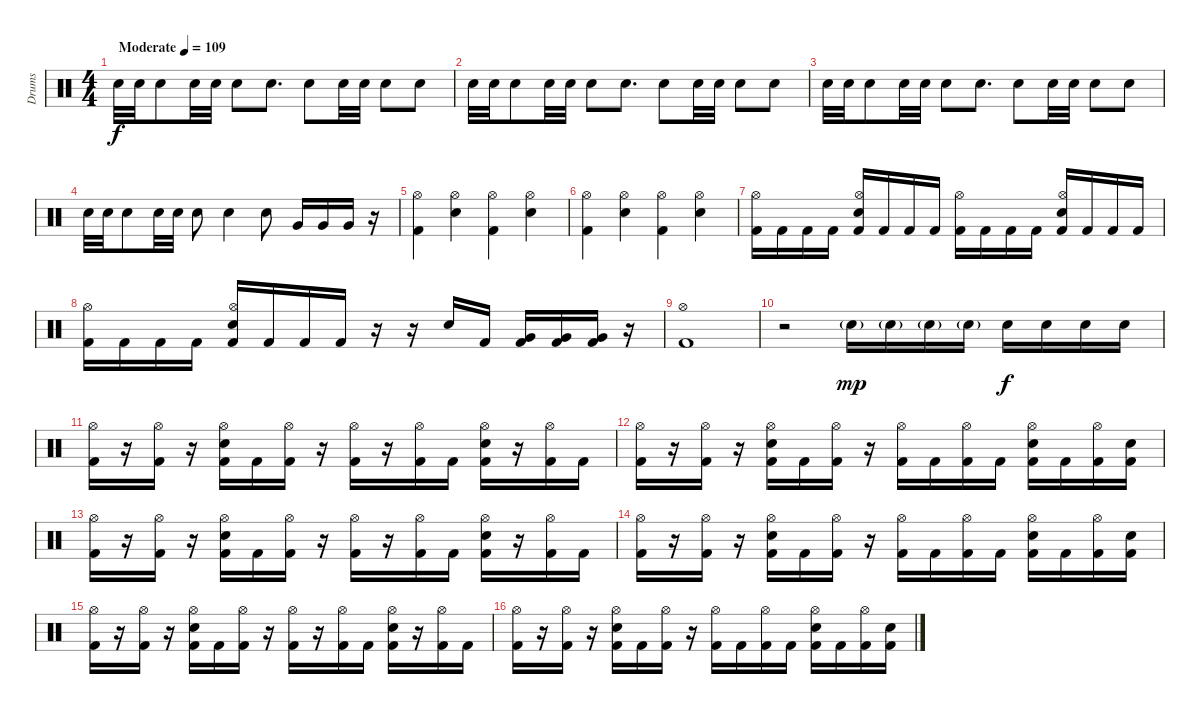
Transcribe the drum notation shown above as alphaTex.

\track ("Drums" "Drums") {instrument percussion}
\staff {score}
\articulation defaults
\ts (4 4)
\tempo (109 "Moderate")
\clef neutral
\ks c "Electric Snare (hit)".32{dy f} "Electric Snare (hit)".32 "Electric Snare (hit)".8 "Electric Snare (hit)".32 "Electric Snare (hit)".32 "Electric Snare (hit)".8 "Electric Snare (hit)".8{d} "Electric Snare (hit)".8 "Electric Snare (hit)".32 "Electric Snare (hit)".32 "Electric Snare (hit)".8 "Electric Snare (hit)".8
|
"Electric Snare (hit)".32 "Electric Snare (hit)".32 "Electric Snare (hit)".8 "Electric Snare (hit)".32 "Electric Snare (hit)".32 "Electric Snare (hit)".8 "Electric Snare (hit)".8{d} "Electric Snare (hit)".8 "Electric Snare (hit)".32 "Electric Snare (hit)".32 "Electric Snare (hit)".8 "Electric Snare (hit)".8 |
"Electric Snare (hit)".32 "Electric Snare (hit)".32 "Electric Snare (hit)".8 "Electric Snare (hit)".32 "Electric Snare (hit)".32 "Electric Snare (hit)".8 "Electric Snare (hit)".8{d} "Electric Snare (hit)".8 "Electric Snare (hit)".32 "Electric Snare (hit)".32 "Electric Snare (hit)".8 "Electric Snare (hit)".8 |
"Electric Snare (hit)".32 "Electric Snare (hit)".32 "Electric Snare (hit)".8 "Electric Snare (hit)".32 "Electric Snare (hit)".32 "Electric Snare (hit)".8 "Electric Snare (hit)".4 "Electric Snare (hit)".8 "Very Low Tom (hit)".16 "Very Low Tom (hit)".16 "Very Low Tom (hit)".16 r.16 |
("Hi-Hat (open)" "Kick (hit) 2").4 ("Hi-Hat (open)" "Electric Snare (hit)").4 ("Hi-Hat (open)" "Kick (hit) 2").4 ("Hi-Hat (open)" "Electric Snare (hit)").4 |
("Hi-Hat (open)" "Kick (hit) 2").4 ("Hi-Hat (open)" "Electric Snare (hit)").4 ("Hi-Hat (open)" "Kick (hit) 2").4 ("Hi-Hat (open)" "Electric Snare (hit)").4 |
("Hi-Hat (open)" "Kick (hit) 2").16 "Kick (hit) 2".16 "Kick (hit) 2".16 "Kick (hit) 2".16 ("Hi-Hat (open)" "Electric Snare (hit)" "Kick (hit) 2").16 "Kick (hit) 2".16 "Kick (hit) 2".16 "Kick (hit) 2".16 ("Hi-Hat (open)" "Kick (hit) 2").16 "Kick (hit) 2".16 "Kick (hit) 2".16 "Kick (hit) 2".16 ("Hi-Hat (open)" "Electric Snare (hit)" "Kick (hit) 2").16 "Kick (hit) 2".16 "Kick (hit) 2".16 "Kick (hit) 2".16 |
("Hi-Hat (open)" "Kick (hit) 2").16 "Kick (hit) 2".16 "Kick (hit) 2".16 "Kick (hit) 2".16 ("Hi-Hat (open)" "Electric Snare (hit)" "Kick (hit) 2").16 "Kick (hit) 2".16 "Kick (hit) 2".16 "Kick (hit) 2".16 r.16 r.16 "Electric Snare (hit)".16 "Kick (hit) 2".16 ("Very Low Tom (hit)" "Kick (hit) 2").16 ("Very Low Tom (hit)" "Kick (hit) 2").16 ("Very Low Tom (hit)" "Kick (hit) 2").16 r.16 |
("Hi-Hat (open)" "Kick (hit) 2").1 |
r.2 "Electric Snare (hit)"{g}.16{dy mp} "Electric Snare (hit)"{g}.16 "Electric Snare (hit)"{g}.16 "Electric Snare (hit)"{g}.16 "Electric Snare (hit)".16{dy f} "Electric Snare (hit)".16 "Electric Snare (hit)".16 "Electric Snare (hit)".16 |
("Hi-Hat (open)" "Kick (hit) 2").16 r.16 ("Hi-Hat (open)" "Kick (hit) 2").16 r.16 ("Hi-Hat (open)" "Electric Snare (hit)" "Kick (hit) 2").16 "Kick (hit) 2".16 ("Hi-Hat (open)" "Kick (hit) 2").16 r.16 ("Hi-Hat (open)" "Kick (hit) 2").16 r.16 ("Hi-Hat (open)" "Kick (hit) 2").16 "Kick (hit) 2".16 ("Hi-Hat (open)" "Electric Snare (hit)" "Kick (hit) 2").16 r.16 ("Hi-Hat (open)" "Kick (hit) 2").16 "Kick (hit) 2".16 |
("Hi-Hat (open)" "Kick (hit) 2").16 r.16 ("Hi-Hat (open)" "Kick (hit) 2").16 r.16 ("Hi-Hat (open)" "Electric Snare (hit)" "Kick (hit) 2").16 "Kick (hit) 2".16 ("Hi-Hat (open)" "Kick (hit) 2").16 r.16 ("Hi-Hat (open)" "Kick (hit) 2").16 "Kick (hit) 2".16 ("Hi-Hat (open)" "Kick (hit) 2").16 "Kick (hit) 2".16 ("Hi-Hat (open)" "Electric Snare (hit)" "Kick (hit) 2").16 "Kick (hit) 2".16 ("Hi-Hat (open)" "Kick (hit) 2").16 ("Electric Snare (hit)" "Kick (hit) 2").16 |
("Hi-Hat (open)" "Kick (hit) 2").16 r.16 ("Hi-Hat (open)" "Kick (hit) 2").16 r.16 ("Hi-Hat (open)" "Electric Snare (hit)" "Kick (hit) 2").16 "Kick (hit) 2".16 ("Hi-Hat (open)" "Kick (hit) 2").16 r.16 ("Hi-Hat (open)" "Kick (hit) 2").16 r.16 ("Hi-Hat (open)" "Kick (hit) 2").16 "Kick (hit) 2".16 ("Hi-Hat (open)" "Electric Snare (hit)" "Kick (hit) 2").16 r.16 ("Hi-Hat (open)" "Kick (hit) 2").16 "Kick (hit) 2".16 |
("Hi-Hat (open)" "Kick (hit) 2").16 r.16 ("Hi-Hat (open)" "Kick (hit) 2").16 r.16 ("Hi-Hat (open)" "Electric Snare (hit)" "Kick (hit) 2").16 "Kick (hit) 2".16 ("Hi-Hat (open)" "Kick (hit) 2").16 r.16 ("Hi-Hat (open)" "Kick (hit) 2").16 "Kick (hit) 2".16 ("Hi-Hat (open)" "Kick (hit) 2").16 "Kick (hit) 2".16 ("Hi-Hat (open)" "Electric Snare (hit)" "Kick (hit) 2").16 "Kick (hit) 2".16 ("Hi-Hat (open)" "Kick (hit) 2").16 ("Electric Snare (hit)" "Kick (hit) 2").16 |
("Hi-Hat (open)" "Kick (hit) 2").16 r.16 ("Hi-Hat (open)" "Kick (hit) 2").16 r.16 ("Hi-Hat (open)" "Electric Snare (hit)" "Kick (hit) 2").16 "Kick (hit) 2".16 ("Hi-Hat (open)" "Kick (hit) 2").16 r.16 ("Hi-Hat (open)" "Kick (hit) 2").16 r.16 ("Hi-Hat (open)" "Kick (hit) 2").16 "Kick (hit) 2".16 ("Hi-Hat (open)" "Electric Snare (hit)" "Kick (hit) 2").16 r.16 ("Hi-Hat (open)" "Kick (hit) 2").16 "Kick (hit) 2".16 |
("Hi-Hat (open)" "Kick (hit) 2").16 r.16 ("Hi-Hat (open)" "Kick (hit) 2").16 r.16 ("Hi-Hat (open)" "Electric Snare (hit)" "Kick (hit) 2").16 "Kick (hit) 2".16 ("Hi-Hat (open)" "Kick (hit) 2").16 r.16 ("Hi-Hat (open)" "Kick (hit) 2").16 "Kick (hit) 2".16 ("Hi-Hat (open)" "Kick (hit) 2").16 "Kick (hit) 2".16 ("Hi-Hat (open)" "Electric Snare (hit)" "Kick (hit) 2").16 "Kick (hit) 2".16 ("Hi-Hat (open)" "Kick (hit) 2").16 ("Electric Snare (hit)" "Kick (hit) 2").16
